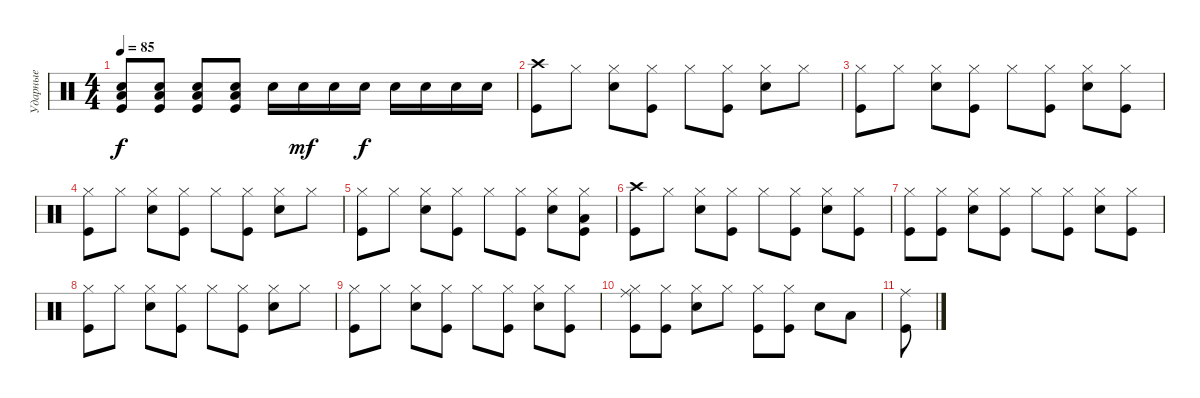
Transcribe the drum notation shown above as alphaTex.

\track ("Ударные" "Ударные") {instrument percussion}
\staff {score}
\articulation defaults
\ts (4 4)
\tempo 85
\clef neutral
\ks c
("Low Floor Tom (hit)" "Electric Snare (hit)" "Kick (hit)").8{dy f} ("Low Floor Tom (hit)" "Electric Snare (hit)" "Kick (hit)").8 ("Low Floor Tom (hit)" "Electric Snare (hit)" "Kick (hit)").8 ("Low Floor Tom (hit)" "Electric Snare (hit)" "Kick (hit)").8 "Electric Snare (hit)".16 "Electric Snare (hit)".16{dy mf} "Electric Snare (hit)".16 "Electric Snare (hit)".16{dy f} "Electric Snare (hit)".16 "Electric Snare (hit)".16 "Electric Snare (hit)".16 "Electric Snare (hit)".16 |
("Crash high (hit)" "Kick (hit)").8 "Hi-Hat (closed)".8 ("Hi-Hat (closed)" "Electric Snare (hit)").8 ("Hi-Hat (closed)" "Kick (hit)").8 "Hi-Hat (closed)".8 ("Hi-Hat (closed)" "Kick (hit)").8 ("Hi-Hat (closed)" "Electric Snare (hit)").8 "Hi-Hat (closed)".8 |
("Hi-Hat (closed)" "Kick (hit)").8 "Hi-Hat (closed)".8 ("Hi-Hat (closed)" "Electric Snare (hit)").8 ("Hi-Hat (closed)" "Kick (hit)").8 "Hi-Hat (closed)".8 ("Hi-Hat (closed)" "Kick (hit)").8 ("Hi-Hat (closed)" "Electric Snare (hit)").8 ("Hi-Hat (closed)" "Kick (hit)").8 |
("Hi-Hat (closed)" "Kick (hit)").8 "Hi-Hat (closed)".8 ("Hi-Hat (closed)" "Electric Snare (hit)").8 ("Hi-Hat (closed)" "Kick (hit)").8 "Hi-Hat (closed)".8 ("Hi-Hat (closed)" "Kick (hit)").8 ("Hi-Hat (closed)" "Electric Snare (hit)").8 "Hi-Hat (closed)".8 |
("Hi-Hat (closed)" "Kick (hit)").8 "Hi-Hat (closed)".8 ("Hi-Hat (closed)" "Electric Snare (hit)").8 ("Hi-Hat (closed)" "Kick (hit)").8 "Hi-Hat (closed)".8 ("Hi-Hat (closed)" "Kick (hit)").8 ("Hi-Hat (closed)" "Electric Snare (hit)").8 ("Hi-Hat (closed)" "Low Floor Tom (hit)" "Kick (hit)").8 |
("Crash high (hit)" "Kick (hit)").8 "Hi-Hat (closed)".8 ("Hi-Hat (closed)" "Electric Snare (hit)").8 ("Hi-Hat (closed)" "Kick (hit)").8 "Hi-Hat (closed)".8 ("Hi-Hat (closed)" "Kick (hit)").8 ("Hi-Hat (closed)" "Electric Snare (hit)").8 ("Hi-Hat (closed)" "Kick (hit)").8 |
("Hi-Hat (closed)" "Kick (hit)").8 ("Hi-Hat (closed)" "Kick (hit)").8 ("Hi-Hat (closed)" "Electric Snare (hit)").8 ("Hi-Hat (closed)" "Kick (hit)").8 "Hi-Hat (closed)".8 ("Hi-Hat (closed)" "Kick (hit)").8 ("Hi-Hat (closed)" "Electric Snare (hit)").8 ("Hi-Hat (closed)" "Kick (hit)").8 |
("Hi-Hat (closed)" "Kick (hit)").8 "Hi-Hat (closed)".8 ("Hi-Hat (closed)" "Electric Snare (hit)").8 ("Hi-Hat (closed)" "Kick (hit)").8 "Hi-Hat (closed)".8 ("Hi-Hat (closed)" "Kick (hit)").8 ("Hi-Hat (closed)" "Electric Snare (hit)").8 "Hi-Hat (closed)".8 |
("Hi-Hat (closed)" "Kick (hit)").8 "Hi-Hat (closed)".8 ("Hi-Hat (closed)" "Electric Snare (hit)").8 ("Hi-Hat (closed)" "Kick (hit)").8 "Hi-Hat (closed)".8 ("Hi-Hat (closed)" "Kick (hit)").8 ("Hi-Hat (closed)" "Electric Snare (hit)").8 ("Hi-Hat (closed)" "Kick (hit)").8 |
("Ride (middle)" "Hi-Hat (closed)" "Kick (hit)").8 ("Hi-Hat (closed)" "Kick (hit)").8 ("Hi-Hat (closed)" "Electric Snare (hit)").8 "Hi-Hat (closed)".8 ("Hi-Hat (closed)" "Kick (hit)").8 ("Hi-Hat (closed)" "Kick (hit)").8 "Electric Snare (hit)".8 "Low Tom (hit)".8 |
("Ride (middle)" "Kick (hit)").8
